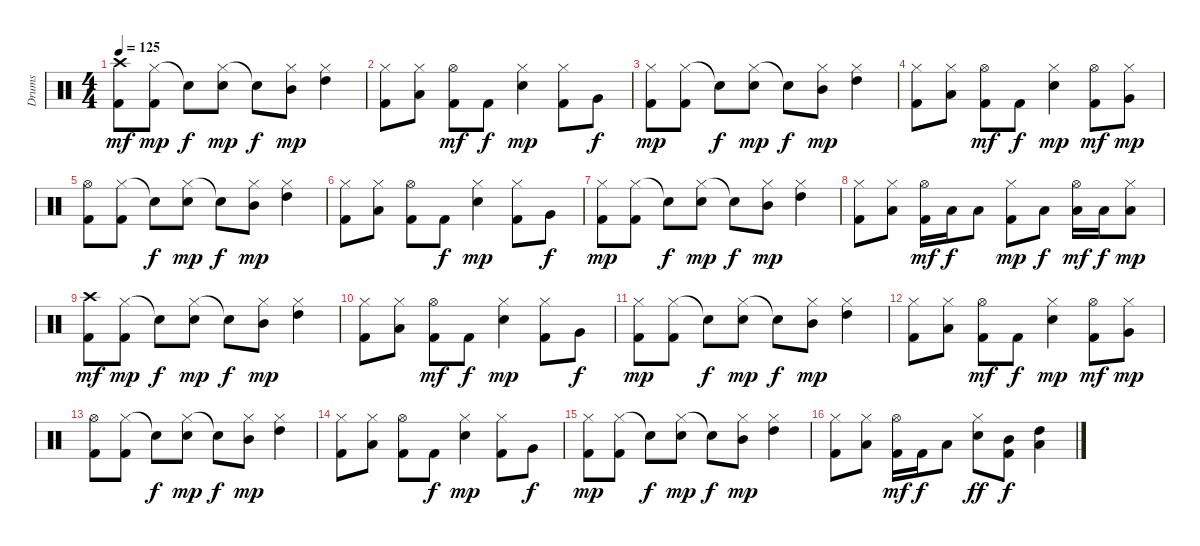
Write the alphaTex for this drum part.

\track ("Drums" "Drums") {instrument percussion}
\staff {score}
\articulation defaults
\ts (4 4)
\tempo 125
\clef neutral
\ks c
("Crash high (hit)" "Kick (hit) 2").8{dy mf} ("Hi-Hat (closed)" "Kick (hit) 2").8{dy mp} "Snare (hit)"{t}.8{dy f} ("Hi-Hat (closed)" "Snare (hit) 2").8{dy mp} "Snare (hit)"{t}.8{dy f} ("Hi-Hat (closed)" "Mid Tom (hit)").8{dy mp} ("Hi-Hat (closed)" "High Tom (hit)").4 |
("Hi-Hat (closed)" "Kick (hit) 2").8 ("Hi-Hat (closed)" "Low Tom (hit)").8 ("Hi-Hat (open)" "Kick (hit) 2").8{dy mf} "Kick (hit) 2".8{dy f} ("Hi-Hat (closed)" "Snare (hit) 2").4{dy mp} ("Hi-Hat (closed)" "Kick (hit) 2").8 "Very Low Tom (hit)".8{dy f} |
("Hi-Hat (closed)" "Kick (hit) 2").8{dy mp} ("Hi-Hat (closed)" "Kick (hit) 2").8 "Snare (hit)"{t}.8{dy f} ("Hi-Hat (closed)" "Snare (hit) 2").8{dy mp} "Snare (hit)"{t}.8{dy f} ("Hi-Hat (closed)" "Mid Tom (hit)").8{dy mp} ("Hi-Hat (closed)" "High Tom (hit)").4 |
("Hi-Hat (closed)" "Kick (hit) 2").8 ("Hi-Hat (closed)" "Low Tom (hit)").8 ("Hi-Hat (open)" "Kick (hit) 2").8{dy mf} "Kick (hit) 2".8{dy f} ("Hi-Hat (closed)" "Snare (hit) 2").4{dy mp} ("Hi-Hat (open)" "Kick (hit) 2").8{dy mf} ("Hi-Hat (closed)" "Very Low Tom (hit)").8{dy mp} |
("Hi-Hat (open)" "Kick (hit) 2").8 ("Hi-Hat (closed)" "Kick (hit) 2").8 "Snare (hit)"{t}.8{dy f} ("Hi-Hat (closed)" "Snare (hit) 2").8{dy mp} "Snare (hit)"{t}.8{dy f} ("Hi-Hat (closed)" "Mid Tom (hit)").8{dy mp} ("Hi-Hat (closed)" "High Tom (hit)").4 |
("Hi-Hat (closed)" "Kick (hit) 2").8 ("Hi-Hat (closed)" "Low Tom (hit)").8 ("Hi-Hat (open)" "Kick (hit) 2").8 "Kick (hit) 2".8{dy f} ("Hi-Hat (closed)" "Snare (hit) 2").4{dy mp} ("Hi-Hat (closed)" "Kick (hit) 2").8 "Very Low Tom (hit)".8{dy f} |
("Hi-Hat (closed)" "Kick (hit) 2").8{dy mp} ("Hi-Hat (closed)" "Kick (hit) 2").8 "Snare (hit)"{t}.8{dy f} ("Hi-Hat (closed)" "Snare (hit) 2").8{dy mp} "Snare (hit)"{t}.8{dy f} ("Hi-Hat (closed)" "Mid Tom (hit)").8{dy mp} ("Hi-Hat (closed)" "High Tom (hit)").4 |
("Hi-Hat (closed)" "Kick (hit) 2").8 ("Hi-Hat (closed)" "Low Tom (hit)").8 ("Hi-Hat (open)" "Kick (hit) 2").16{dy mf} "Low Tom (hit)".16{dy f} "Low Tom (hit)".8 ("Hi-Hat (closed)" "Kick (hit) 2").8{dy mp} "Low Tom (hit)".8{dy f} ("Hi-Hat (open)" "Low Tom (hit)").16{dy mf} "Low Tom (hit)".16{dy f} ("Hi-Hat (closed)" "Low Tom (hit)").8{dy mp} |
("Crash high (hit)" "Kick (hit) 2").8{dy mf} ("Hi-Hat (closed)" "Kick (hit) 2").8{dy mp} "Snare (hit)"{t}.8{dy f} ("Hi-Hat (closed)" "Snare (hit) 2").8{dy mp} "Snare (hit)"{t}.8{dy f} ("Hi-Hat (closed)" "Mid Tom (hit)").8{dy mp} ("Hi-Hat (closed)" "High Tom (hit)").4 |
("Hi-Hat (closed)" "Kick (hit) 2").8 ("Hi-Hat (closed)" "Low Tom (hit)").8 ("Hi-Hat (open)" "Kick (hit) 2").8{dy mf} "Kick (hit) 2".8{dy f} ("Hi-Hat (closed)" "Snare (hit) 2").4{dy mp} ("Hi-Hat (closed)" "Kick (hit) 2").8 "Very Low Tom (hit)".8{dy f} |
("Hi-Hat (closed)" "Kick (hit) 2").8{dy mp} ("Hi-Hat (closed)" "Kick (hit) 2").8 "Snare (hit)"{t}.8{dy f} ("Hi-Hat (closed)" "Snare (hit) 2").8{dy mp} "Snare (hit)"{t}.8{dy f} ("Hi-Hat (closed)" "Mid Tom (hit)").8{dy mp} ("Hi-Hat (closed)" "High Tom (hit)").4 |
("Hi-Hat (closed)" "Kick (hit) 2").8 ("Hi-Hat (closed)" "Low Tom (hit)").8 ("Hi-Hat (open)" "Kick (hit) 2").8{dy mf} "Kick (hit) 2".8{dy f} ("Hi-Hat (closed)" "Snare (hit) 2").4{dy mp} ("Hi-Hat (open)" "Kick (hit) 2").8{dy mf} ("Hi-Hat (closed)" "Very Low Tom (hit)").8{dy mp} |
("Hi-Hat (open)" "Kick (hit) 2").8 ("Hi-Hat (closed)" "Kick (hit) 2").8 "Snare (hit)"{t}.8{dy f} ("Hi-Hat (closed)" "Snare (hit) 2").8{dy mp} "Snare (hit)"{t}.8{dy f} ("Hi-Hat (closed)" "Mid Tom (hit)").8{dy mp} ("Hi-Hat (closed)" "High Tom (hit)").4 |
("Hi-Hat (closed)" "Kick (hit) 2").8 ("Hi-Hat (closed)" "Low Tom (hit)").8 ("Hi-Hat (open)" "Kick (hit) 2").8 "Kick (hit) 2".8{dy f} ("Hi-Hat (closed)" "Snare (hit) 2").4{dy mp} ("Hi-Hat (closed)" "Kick (hit) 2").8 "Very Low Tom (hit)".8{dy f} |
("Hi-Hat (closed)" "Kick (hit) 2").8{dy mp} ("Hi-Hat (closed)" "Kick (hit) 2").8 "Snare (hit)"{t}.8{dy f} ("Hi-Hat (closed)" "Snare (hit) 2").8{dy mp} "Snare (hit)"{t}.8{dy f} ("Hi-Hat (closed)" "Mid Tom (hit)").8{dy mp} ("Hi-Hat (closed)" "High Tom (hit)").4 |
("Hi-Hat (closed)" "Kick (hit) 2").8 ("Hi-Hat (closed)" "Low Tom (hit)").8 ("Hi-Hat (open)" "Kick (hit) 2").16{dy mf} "Kick (hit) 2".16{dy f} "Low Tom (hit)".8 ("Hi-Hat (closed)" "Snare (hit) 2").8{dy ff} ("Mid Tom (hit)" "Kick (hit) 2").8{dy f} ("High Tom (hit)" "Low Tom (hit)").4
